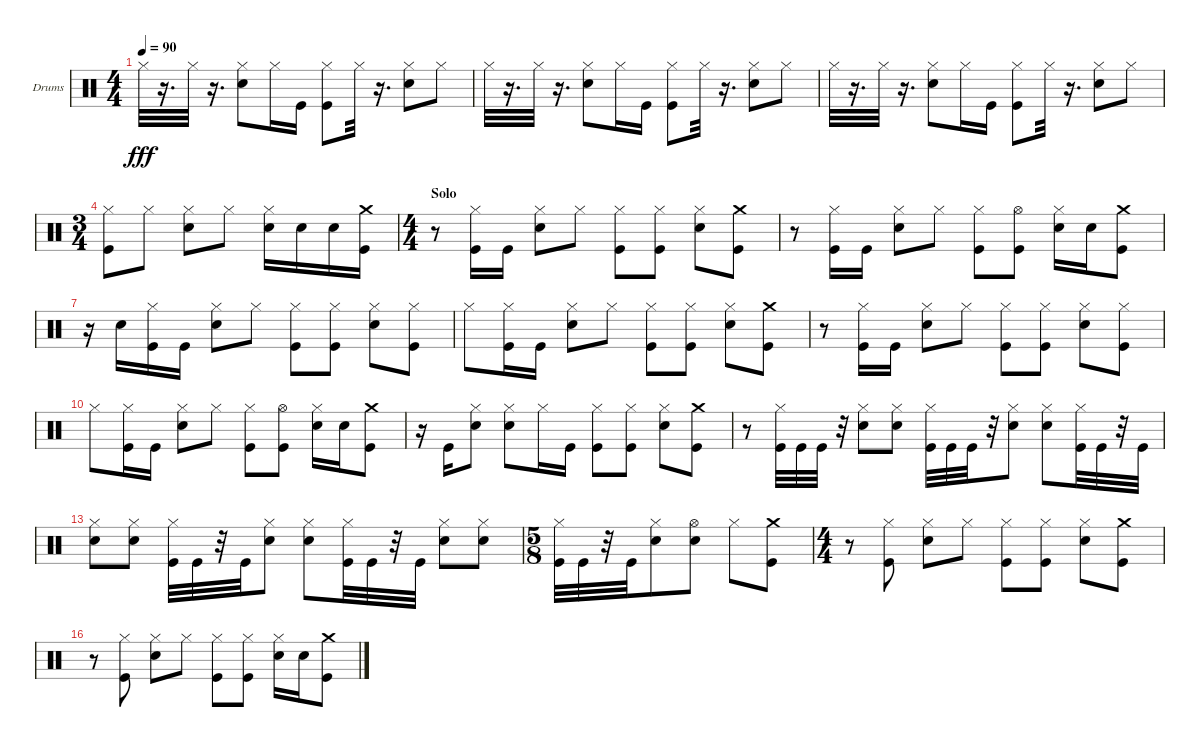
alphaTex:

\bracketExtendMode nobrackets
\firstSystemTrackNameOrientation horizontal
\otherSystemsTrackNameOrientation horizontal
\defaultBarNumberDisplay FirstOfSystem
\track ("Drums" "Drums") {instrument percussion}
\staff {score}
\articulation defaults
\ts (4 4)
\tempo 90
\clef neutral
\ks c "Hi-Hat (closed)".32{dy fff}
r.16{d} "Hi-Hat (closed)".32 r.16{d} ("Hi-Hat (closed)" "Snare (hit) 2").8 "Hi-Hat (closed)".16 "Kick (hit)".16 ("Kick (hit)" "Hi-Hat (closed)").8 "Hi-Hat (closed)".32 r.16{d} ("Hi-Hat (closed)" "Snare (hit) 2").8 "Hi-Hat (closed)".8 |
"Hi-Hat (closed)".32 r.16{d} "Hi-Hat (closed)".32 r.16{d} ("Hi-Hat (closed)" "Snare (hit) 2").8 "Hi-Hat (closed)".16 "Kick (hit)".16 ("Kick (hit)" "Hi-Hat (closed)").8 "Hi-Hat (closed)".32 r.16{d} ("Hi-Hat (closed)" "Snare (hit) 2").8 "Hi-Hat (closed)".8 |
"Hi-Hat (closed)".32 r.16{d} "Hi-Hat (closed)".32 r.16{d} ("Hi-Hat (closed)" "Snare (hit) 2").8 "Hi-Hat (closed)".16 "Kick (hit)".16 ("Kick (hit)" "Hi-Hat (closed)").8 "Hi-Hat (closed)".32 r.16{d} ("Hi-Hat (closed)" "Snare (hit) 2").8 "Hi-Hat (closed)".8 |
\ts (3 4)
("Hi-Hat (closed)" "Kick (hit)").8 "Hi-Hat (closed)".8 ("Snare (hit) 2" "Hi-Hat (closed)").8 "Hi-Hat (closed)".8 ("Hi-Hat (closed)" "Snare (hit) 2").16 "Snare (hit) 2".16 "Snare (hit) 2".16 ("Crash medium (hit)" "Kick (hit)").16 |
\ts (4 4)
\section ("" "Solo")
r.8 ("Kick (hit)" "Hi-Hat (closed)").16 "Kick (hit)".16 ("Hi-Hat (closed)" "Snare (hit) 2").8 "Hi-Hat (closed)".8 ("Kick (hit)" "Hi-Hat (closed)").8 ("Kick (hit)" "Hi-Hat (closed)").8 ("Hi-Hat (closed)" "Snare (hit) 2").8 ("Crash medium (hit)" "Kick (hit)").8 |
r.8 ("Kick (hit)" "Hi-Hat (closed)").16 "Kick (hit)".16 ("Snare (hit) 2" "Hi-Hat (closed)").8 "Hi-Hat (closed)".8 ("Kick (hit)" "Hi-Hat (closed)").8 ("Kick (hit)" "Hi-Hat (open)").8 ("Hi-Hat (closed)" "Snare (hit) 2").16 "Snare (hit) 2".16 ("Kick (hit)" "Crash medium (hit)").8 |
r.16 "Snare (hit) 2".16 ("Hi-Hat (closed)" "Kick (hit)").16 "Kick (hit)".16 ("Snare (hit) 2" "Hi-Hat (closed)").8 "Hi-Hat (closed)".8 ("Kick (hit)" "Hi-Hat (closed)").8 ("Hi-Hat (closed)" "Kick (hit)").8 ("Hi-Hat (closed)" "Snare (hit) 2").8 ("Hi-Hat (closed)" "Kick (hit)").8 |
"Hi-Hat (closed)".8 ("Hi-Hat (closed)" "Kick (hit)").16 "Kick (hit)".16 ("Snare (hit) 2" "Hi-Hat (closed)").8 "Hi-Hat (closed)".8 ("Kick (hit)" "Hi-Hat (closed)").8 ("Kick (hit)" "Hi-Hat (closed)").8 ("Hi-Hat (closed)" "Snare (hit) 2").8 ("Kick (hit)" "Crash medium (hit)").8 |
r.8 ("Hi-Hat (closed)" "Kick (hit)").16 "Kick (hit)".16 ("Snare (hit) 2" "Hi-Hat (closed)").8 "Hi-Hat (closed)".8 ("Kick (hit)" "Hi-Hat (closed)").8 ("Kick (hit)" "Hi-Hat (closed)").8 ("Hi-Hat (closed)" "Snare (hit) 2").8 ("Kick (hit)" "Hi-Hat (closed)").8 |
"Hi-Hat (closed)".8 ("Hi-Hat (closed)" "Kick (hit)").16 "Kick (hit)".16 ("Snare (hit) 2" "Hi-Hat (closed)").8 "Hi-Hat (closed)".8 ("Kick (hit)" "Hi-Hat (closed)").8 ("Kick (hit)" "Hi-Hat (open)").8 ("Hi-Hat (closed)" "Snare (hit) 2").16 "Snare (hit) 2".16 ("Crash medium (hit)" "Kick (hit)").8 |
r.16 "Kick (hit)".16 ("Hi-Hat (closed)" "Snare (hit) 2").8 ("Hi-Hat (closed)" "Snare (hit) 2").8 "Hi-Hat (closed)".16 "Kick (hit)".16 ("Kick (hit)" "Hi-Hat (closed)").8 ("Hi-Hat (closed)" "Kick (hit)").8 ("Snare (hit) 2" "Hi-Hat (closed)").8 ("Crash medium (hit)" "Kick (hit)").8 |
r.8 ("Kick (hit)" "Hi-Hat (closed)").32 "Kick (hit)".32 "Kick (hit)".32 r.32 ("Hi-Hat (closed)" "Snare (hit) 2").8 ("Snare (hit) 2" "Hi-Hat (closed)").8 ("Kick (hit)" "Hi-Hat (closed)").32 "Kick (hit)".32 "Kick (hit)".32 r.32 ("Snare (hit) 2" "Hi-Hat (closed)").8 ("Hi-Hat (closed)" "Snare (hit) 2").8 ("Hi-Hat (closed)" "Kick (hit)").32 "Kick (hit)".32 r.32 "Kick (hit)".32 |
("Snare (hit) 2" "Hi-Hat (closed)").8 ("Snare (hit) 2" "Hi-Hat (closed)").8 ("Kick (hit)" "Hi-Hat (closed)").32 "Kick (hit)".32 r.32 "Kick (hit)".32 ("Snare (hit) 2" "Hi-Hat (closed)").8 ("Hi-Hat (closed)" "Snare (hit) 2").8 ("Hi-Hat (closed)" "Kick (hit)").32 "Kick (hit)".32 r.32 "Kick (hit)".32 ("Hi-Hat (closed)" "Snare (hit) 2").8 ("Hi-Hat (closed)" "Snare (hit) 2").8 |
\ts (5 8)
("Kick (hit)" "Hi-Hat (closed)").32 "Kick (hit)".32 r.32 "Kick (hit)".32 ("Hi-Hat (closed)" "Snare (hit) 2").8 ("Snare (hit) 2" "Hi-Hat (open)").8 "Hi-Hat (closed)".8 ("Kick (hit)" "Crash medium (hit)").8 |
\ts (4 4)
r.8 ("Kick (hit)" "Hi-Hat (closed)").8 ("Hi-Hat (closed)" "Snare (hit) 2").8 "Hi-Hat (closed)".8 ("Kick (hit)" "Hi-Hat (closed)").8 ("Kick (hit)" "Hi-Hat (closed)").8 ("Hi-Hat (closed)" "Snare (hit) 2").8 ("Kick (hit)" "Crash medium (hit)").8 |
r.8 ("Hi-Hat (closed)" "Kick (hit)").8 ("Snare (hit) 2" "Hi-Hat (closed)").8 "Hi-Hat (closed)".8 ("Kick (hit)" "Hi-Hat (closed)").8 ("Kick (hit)" "Hi-Hat (closed)").8 ("Hi-Hat (closed)" "Snare (hit) 2").16 "Snare (hit) 2".16 ("Kick (hit)" "Crash medium (hit)").8
